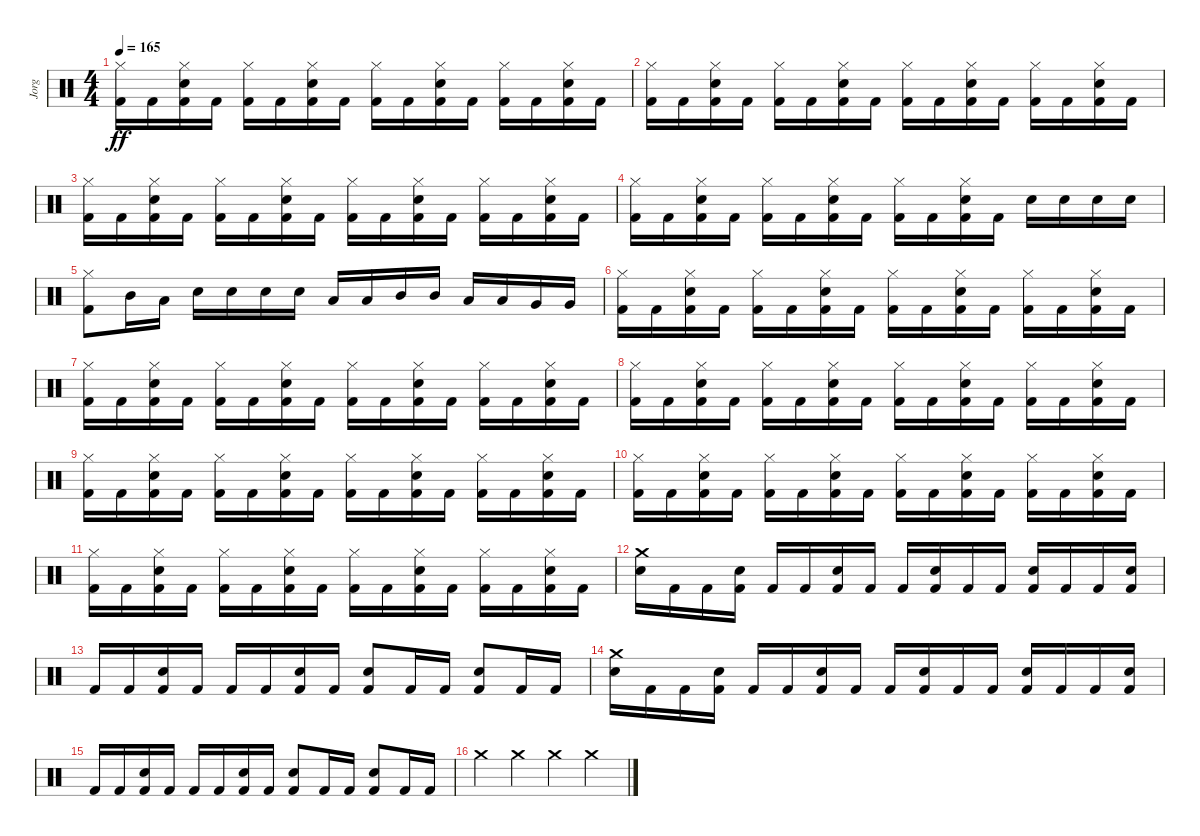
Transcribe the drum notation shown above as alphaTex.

\track ("Jorg" "Jorg") {instrument percussion}
\staff {score}
\articulation defaults
\ts (4 4)
\tempo 165
\clef neutral
\ks c
("Hi-Hat (closed)" "Kick (hit) 2").16{dy ff} "Kick (hit) 2".16 ("Hi-Hat (closed)" "Electric Snare (hit)" "Kick (hit) 2").16 "Kick (hit) 2".16 ("Hi-Hat (closed)" "Kick (hit) 2").16 "Kick (hit) 2".16 ("Hi-Hat (closed)" "Electric Snare (hit)" "Kick (hit) 2").16 "Kick (hit) 2".16 ("Hi-Hat (closed)" "Kick (hit) 2").16 "Kick (hit) 2".16 ("Hi-Hat (closed)" "Electric Snare (hit)" "Kick (hit) 2").16 "Kick (hit) 2".16 ("Hi-Hat (closed)" "Kick (hit) 2").16 "Kick (hit) 2".16 ("Hi-Hat (closed)" "Electric Snare (hit)" "Kick (hit) 2").16 "Kick (hit) 2".16 |
("Hi-Hat (closed)" "Kick (hit) 2").16 "Kick (hit) 2".16 ("Hi-Hat (closed)" "Electric Snare (hit)" "Kick (hit) 2").16 "Kick (hit) 2".16 ("Hi-Hat (closed)" "Kick (hit) 2").16 "Kick (hit) 2".16 ("Hi-Hat (closed)" "Electric Snare (hit)" "Kick (hit) 2").16 "Kick (hit) 2".16 ("Hi-Hat (closed)" "Kick (hit) 2").16 "Kick (hit) 2".16 ("Hi-Hat (closed)" "Electric Snare (hit)" "Kick (hit) 2").16 "Kick (hit) 2".16 ("Hi-Hat (closed)" "Kick (hit) 2").16 "Kick (hit) 2".16 ("Hi-Hat (closed)" "Electric Snare (hit)" "Kick (hit) 2").16 "Kick (hit) 2".16 |
("Hi-Hat (closed)" "Kick (hit) 2").16 "Kick (hit) 2".16 ("Hi-Hat (closed)" "Electric Snare (hit)" "Kick (hit) 2").16 "Kick (hit) 2".16 ("Hi-Hat (closed)" "Kick (hit) 2").16 "Kick (hit) 2".16 ("Hi-Hat (closed)" "Electric Snare (hit)" "Kick (hit) 2").16 "Kick (hit) 2".16 ("Hi-Hat (closed)" "Kick (hit) 2").16 "Kick (hit) 2".16 ("Hi-Hat (closed)" "Electric Snare (hit)" "Kick (hit) 2").16 "Kick (hit) 2".16 ("Hi-Hat (closed)" "Kick (hit) 2").16 "Kick (hit) 2".16 ("Hi-Hat (closed)" "Electric Snare (hit)" "Kick (hit) 2").16 "Kick (hit) 2".16 |
("Hi-Hat (closed)" "Kick (hit) 2").16 "Kick (hit) 2".16 ("Hi-Hat (closed)" "Electric Snare (hit)" "Kick (hit) 2").16 "Kick (hit) 2".16 ("Hi-Hat (closed)" "Kick (hit) 2").16 "Kick (hit) 2".16 ("Hi-Hat (closed)" "Electric Snare (hit)" "Kick (hit) 2").16 "Kick (hit) 2".16 ("Hi-Hat (closed)" "Kick (hit) 2").16 "Kick (hit) 2".16 ("Hi-Hat (closed)" "Electric Snare (hit)" "Kick (hit) 2").16 "Kick (hit) 2".16 "Electric Snare (hit)".16 "Electric Snare (hit)".16 "Electric Snare (hit)".16 "Electric Snare (hit)".16 |
("Hi-Hat (closed)" "Kick (hit) 2").8 "Mid Tom (hit)".16 "Low Floor Tom (hit)".16 "Electric Snare (hit)".16 "Electric Snare (hit)".16 "Electric Snare (hit)".16 "Electric Snare (hit)".16 "Low Floor Tom (hit)".16 "Low Floor Tom (hit)".16 "Mid Tom (hit)".16 "Mid Tom (hit)".16 "Low Tom (hit)".16 "Low Tom (hit)".16 "Very Low Tom (hit)".16 "Very Low Tom (hit)".16 |
("Hi-Hat (closed)" "Kick (hit) 2").16 "Kick (hit) 2".16 ("Hi-Hat (closed)" "Electric Snare (hit)" "Kick (hit) 2").16 "Kick (hit) 2".16 ("Hi-Hat (closed)" "Kick (hit) 2").16 "Kick (hit) 2".16 ("Hi-Hat (closed)" "Electric Snare (hit)" "Kick (hit) 2").16 "Kick (hit) 2".16 ("Hi-Hat (closed)" "Kick (hit) 2").16 "Kick (hit) 2".16 ("Hi-Hat (closed)" "Electric Snare (hit)" "Kick (hit) 2").16 "Kick (hit) 2".16 ("Hi-Hat (closed)" "Kick (hit) 2").16 "Kick (hit) 2".16 ("Hi-Hat (closed)" "Electric Snare (hit)" "Kick (hit) 2").16 "Kick (hit) 2".16 |
("Hi-Hat (closed)" "Kick (hit) 2").16 "Kick (hit) 2".16 ("Hi-Hat (closed)" "Electric Snare (hit)" "Kick (hit) 2").16 "Kick (hit) 2".16 ("Hi-Hat (closed)" "Kick (hit) 2").16 "Kick (hit) 2".16 ("Hi-Hat (closed)" "Electric Snare (hit)" "Kick (hit) 2").16 "Kick (hit) 2".16 ("Hi-Hat (closed)" "Kick (hit) 2").16 "Kick (hit) 2".16 ("Hi-Hat (closed)" "Electric Snare (hit)" "Kick (hit) 2").16 "Kick (hit) 2".16 ("Hi-Hat (closed)" "Kick (hit) 2").16 "Kick (hit) 2".16 ("Hi-Hat (closed)" "Electric Snare (hit)" "Kick (hit) 2").16 "Kick (hit) 2".16 |
("Hi-Hat (closed)" "Kick (hit) 2").16 "Kick (hit) 2".16 ("Hi-Hat (closed)" "Electric Snare (hit)" "Kick (hit) 2").16 "Kick (hit) 2".16 ("Hi-Hat (closed)" "Kick (hit) 2").16 "Kick (hit) 2".16 ("Hi-Hat (closed)" "Electric Snare (hit)" "Kick (hit) 2").16 "Kick (hit) 2".16 ("Hi-Hat (closed)" "Kick (hit) 2").16 "Kick (hit) 2".16 ("Hi-Hat (closed)" "Electric Snare (hit)" "Kick (hit) 2").16 "Kick (hit) 2".16 ("Hi-Hat (closed)" "Kick (hit) 2").16 "Kick (hit) 2".16 ("Hi-Hat (closed)" "Electric Snare (hit)" "Kick (hit) 2").16 "Kick (hit) 2".16 |
("Hi-Hat (closed)" "Kick (hit) 2").16 "Kick (hit) 2".16 ("Hi-Hat (closed)" "Electric Snare (hit)" "Kick (hit) 2").16 "Kick (hit) 2".16 ("Hi-Hat (closed)" "Kick (hit) 2").16 "Kick (hit) 2".16 ("Hi-Hat (closed)" "Electric Snare (hit)" "Kick (hit) 2").16 "Kick (hit) 2".16 ("Hi-Hat (closed)" "Kick (hit) 2").16 "Kick (hit) 2".16 ("Hi-Hat (closed)" "Electric Snare (hit)" "Kick (hit) 2").16 "Kick (hit) 2".16 ("Hi-Hat (closed)" "Kick (hit) 2").16 "Kick (hit) 2".16 ("Hi-Hat (closed)" "Electric Snare (hit)" "Kick (hit) 2").16 "Kick (hit) 2".16 |
("Hi-Hat (closed)" "Kick (hit) 2").16 "Kick (hit) 2".16 ("Hi-Hat (closed)" "Electric Snare (hit)" "Kick (hit) 2").16 "Kick (hit) 2".16 ("Hi-Hat (closed)" "Kick (hit) 2").16 "Kick (hit) 2".16 ("Hi-Hat (closed)" "Electric Snare (hit)" "Kick (hit) 2").16 "Kick (hit) 2".16 ("Hi-Hat (closed)" "Kick (hit) 2").16 "Kick (hit) 2".16 ("Hi-Hat (closed)" "Electric Snare (hit)" "Kick (hit) 2").16 "Kick (hit) 2".16 ("Hi-Hat (closed)" "Kick (hit) 2").16 "Kick (hit) 2".16 ("Hi-Hat (closed)" "Electric Snare (hit)" "Kick (hit) 2").16 "Kick (hit) 2".16 |
("Hi-Hat (closed)" "Kick (hit) 2").16 "Kick (hit) 2".16 ("Hi-Hat (closed)" "Electric Snare (hit)" "Kick (hit) 2").16 "Kick (hit) 2".16 ("Hi-Hat (closed)" "Kick (hit) 2").16 "Kick (hit) 2".16 ("Hi-Hat (closed)" "Electric Snare (hit)" "Kick (hit) 2").16 "Kick (hit) 2".16 ("Hi-Hat (closed)" "Kick (hit) 2").16 "Kick (hit) 2".16 ("Hi-Hat (closed)" "Electric Snare (hit)" "Kick (hit) 2").16 "Kick (hit) 2".16 ("Hi-Hat (closed)" "Kick (hit) 2").16 "Kick (hit) 2".16 ("Hi-Hat (closed)" "Electric Snare (hit)" "Kick (hit) 2").16 "Kick (hit) 2".16 |
("Crash medium (hit)" "Electric Snare (hit)").16 "Kick (hit) 2".16 "Kick (hit) 2".16 ("Electric Snare (hit)" "Kick (hit) 2").16 "Kick (hit) 2".16 "Kick (hit) 2".16 ("Electric Snare (hit)" "Kick (hit) 2").16 "Kick (hit) 2".16 "Kick (hit) 2".16 ("Electric Snare (hit)" "Kick (hit) 2").16 "Kick (hit) 2".16 "Kick (hit) 2".16 ("Electric Snare (hit)" "Kick (hit) 2").16 "Kick (hit) 2".16 "Kick (hit) 2".16 ("Electric Snare (hit)" "Kick (hit) 2").16 |
"Kick (hit) 2".16 "Kick (hit) 2".16 ("Electric Snare (hit)" "Kick (hit) 2").16 "Kick (hit) 2".16 "Kick (hit) 2".16 "Kick (hit) 2".16 ("Electric Snare (hit)" "Kick (hit) 2").16 "Kick (hit) 2".16 ("Electric Snare (hit)" "Kick (hit) 2").8 "Kick (hit) 2".16 "Kick (hit) 2".16 ("Electric Snare (hit)" "Kick (hit) 2").8 "Kick (hit) 2".16 "Kick (hit) 2".16 |
("Crash medium (hit)" "Electric Snare (hit)").16 "Kick (hit) 2".16 "Kick (hit) 2".16 ("Electric Snare (hit)" "Kick (hit) 2").16 "Kick (hit) 2".16 "Kick (hit) 2".16 ("Electric Snare (hit)" "Kick (hit) 2").16 "Kick (hit) 2".16 "Kick (hit) 2".16 ("Electric Snare (hit)" "Kick (hit) 2").16 "Kick (hit) 2".16 "Kick (hit) 2".16 ("Electric Snare (hit)" "Kick (hit) 2").16 "Kick (hit) 2".16 "Kick (hit) 2".16 ("Electric Snare (hit)" "Kick (hit) 2").16 |
"Kick (hit) 2".16 "Kick (hit) 2".16 ("Electric Snare (hit)" "Kick (hit) 2").16 "Kick (hit) 2".16 "Kick (hit) 2".16 "Kick (hit) 2".16 ("Electric Snare (hit)" "Kick (hit) 2").16 "Kick (hit) 2".16 ("Electric Snare (hit)" "Kick (hit) 2").8 "Kick (hit) 2".16 "Kick (hit) 2".16 ("Electric Snare (hit)" "Kick (hit) 2").8 "Kick (hit) 2".16 "Kick (hit) 2".16 |
"Crash medium (hit)".4 "Crash medium (hit)".4 "Crash medium (hit)".4 "Crash medium (hit)".4
